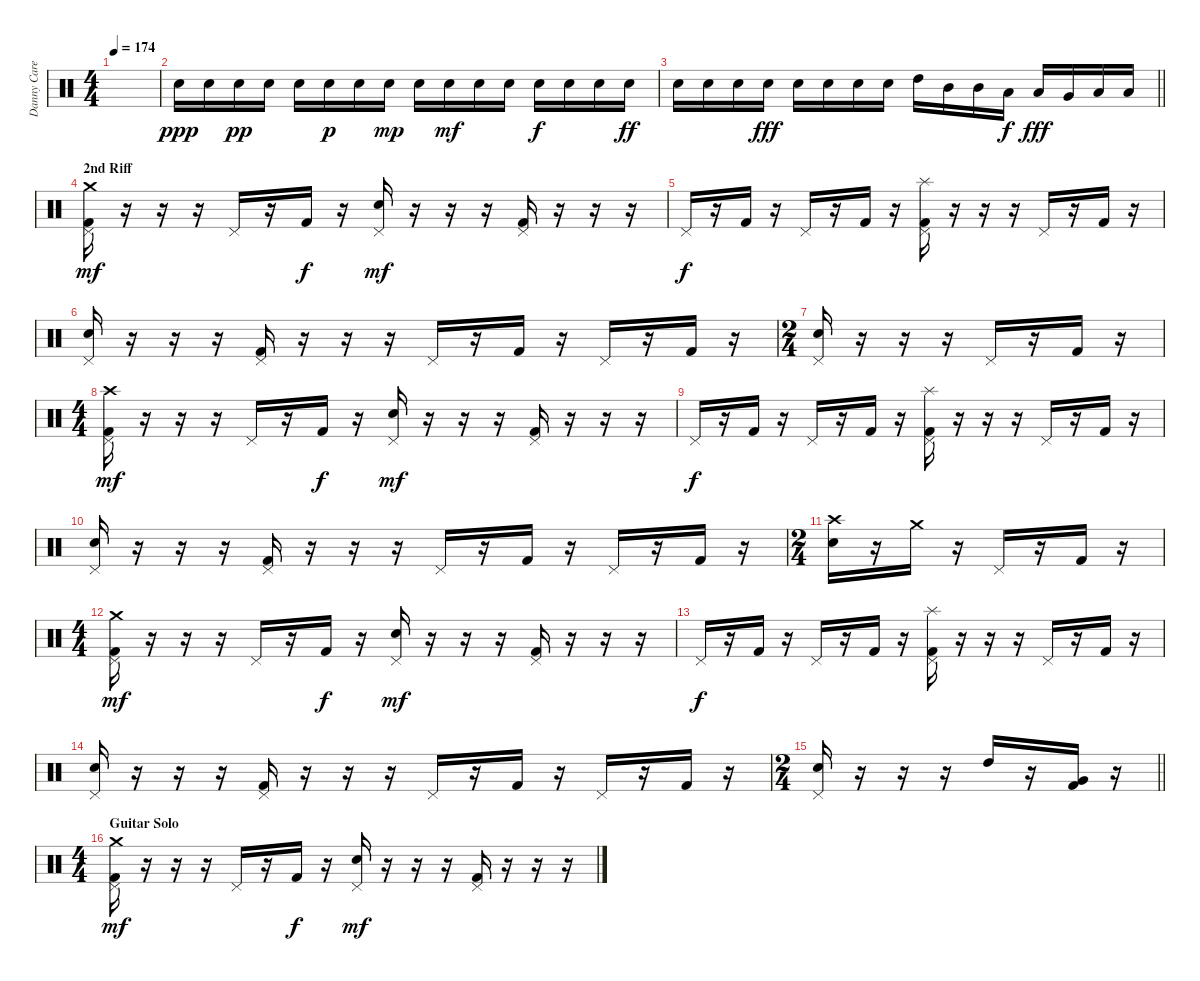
\track ("Danny Carey" "Danny Care") {instrument percussion}
\staff {score}
\articulation defaults
\ts (4 4)
\tempo 174
\clef neutral
\ks c
|
"Electric Snare (hit)".16{dy ppp} "Electric Snare (hit)".16 "Electric Snare (hit)".16{dy pp} "Electric Snare (hit)".16 "Electric Snare (hit)".16 "Electric Snare (hit)".16{dy p} "Electric Snare (hit)".16 "Electric Snare (hit)".16{dy mp} "Electric Snare (hit)".16 "Electric Snare (hit)".16{dy mf} "Electric Snare (hit)".16 "Electric Snare (hit)".16 "Electric Snare (hit)".16{dy f} "Electric Snare (hit)".16 "Electric Snare (hit)".16 "Electric Snare (hit)".16{dy ff} |
\barLineRight lightlight "Electric Snare (hit)".16 "Electric Snare (hit)".16 "Electric Snare (hit)".16 "Electric Snare (hit)".16{dy fff} "Electric Snare (hit)".16 "Electric Snare (hit)".16 "Electric Snare (hit)".16 "Electric Snare (hit)".16 "High Tom (hit)".16 "Mid Tom (hit)".16 "Mid Tom (hit)".16 "Low Tom (hit)".16{dy f} "Low Tom (hit)".16{dy fff} "Very Low Tom (hit)".16 "Low Floor Tom (hit)".16 "Low Floor Tom (hit)".16
|
\section ("" "2nd Riff")
("Crash medium (hit)" "Pedal Hi-Hat (hit)" "Kick (hit) 2").16{dy mf} r.16 r.16 r.16 "Pedal Hi-Hat (hit)".16 r.16 "Kick (hit) 2".16{dy f} r.16 ("Pedal Hi-Hat (hit)" "Snare (hit) 2").16{dy mf} r.16 r.16 r.16 ("Pedal Hi-Hat (hit)" "Kick (hit) 2").16 r.16 r.16 r.16 |
"Pedal Hi-Hat (hit)".16{dy f} r.16 "Kick (hit) 2".16 r.16 "Pedal Hi-Hat (hit)".16 r.16 "Kick (hit) 2".16 r.16 ("Splash (hit)" "Pedal Hi-Hat (hit)" "Kick (hit) 2").16 r.16 r.16 r.16 "Pedal Hi-Hat (hit)".16 r.16 "Kick (hit) 2".16 r.16 |
("Pedal Hi-Hat (hit)" "Snare (hit) 2").16 r.16 r.16 r.16 ("Pedal Hi-Hat (hit)" "Kick (hit) 2").16 r.16 r.16 r.16 "Pedal Hi-Hat (hit)".16 r.16 "Kick (hit) 2".16 r.16 "Pedal Hi-Hat (hit)".16 r.16 "Kick (hit) 2".16 r.16 |
\ts (2 4)
("Pedal Hi-Hat (hit)" "Snare (hit) 2").16 r.16 r.16 r.16 "Pedal Hi-Hat (hit)".16 r.16 "Kick (hit) 2".16 r.16 |
\ts (4 4)
("Crash high (hit)" "Pedal Hi-Hat (hit)" "Kick (hit) 2").16{dy mf} r.16 r.16 r.16 "Pedal Hi-Hat (hit)".16 r.16 "Kick (hit) 2".16{dy f} r.16 ("Pedal Hi-Hat (hit)" "Snare (hit) 2").16{dy mf} r.16 r.16 r.16 ("Pedal Hi-Hat (hit)" "Kick (hit) 2").16 r.16 r.16 r.16 |
"Pedal Hi-Hat (hit)".16{dy f} r.16 "Kick (hit) 2".16 r.16 "Pedal Hi-Hat (hit)".16 r.16 "Kick (hit) 2".16 r.16 ("Splash (hit)" "Pedal Hi-Hat (hit)" "Kick (hit) 2").16 r.16 r.16 r.16 "Pedal Hi-Hat (hit)".16 r.16 "Kick (hit) 2".16 r.16 |
("Pedal Hi-Hat (hit)" "Snare (hit) 2").16 r.16 r.16 r.16 ("Pedal Hi-Hat (hit)" "Kick (hit) 2").16 r.16 r.16 r.16 "Pedal Hi-Hat (hit)".16 r.16 "Kick (hit) 2".16 r.16 "Pedal Hi-Hat (hit)".16 r.16 "Kick (hit) 2".16 r.16 |
\ts (2 4)
("Crash high (hit)" "Snare (hit) 2").16 r.16 "Crash medium (hit)".16 r.16 "Pedal Hi-Hat (hit)".16 r.16 "Kick (hit) 2".16 r.16 |
\ts (4 4)
("Crash medium (hit)" "Pedal Hi-Hat (hit)" "Kick (hit) 2").16{dy mf} r.16 r.16 r.16 "Pedal Hi-Hat (hit)".16 r.16 "Kick (hit) 2".16{dy f} r.16 ("Pedal Hi-Hat (hit)" "Snare (hit) 2").16{dy mf} r.16 r.16 r.16 ("Pedal Hi-Hat (hit)" "Kick (hit) 2").16 r.16 r.16 r.16 |
"Pedal Hi-Hat (hit)".16{dy f} r.16 "Kick (hit) 2".16 r.16 "Pedal Hi-Hat (hit)".16 r.16 "Kick (hit) 2".16 r.16 ("Splash (hit)" "Pedal Hi-Hat (hit)" "Kick (hit) 2").16 r.16 r.16 r.16 "Pedal Hi-Hat (hit)".16 r.16 "Kick (hit) 2".16 r.16 |
("Pedal Hi-Hat (hit)" "Snare (hit) 2").16 r.16 r.16 r.16 ("Pedal Hi-Hat (hit)" "Kick (hit) 2").16 r.16 r.16 r.16 "Pedal Hi-Hat (hit)".16 r.16 "Kick (hit) 2".16 r.16 "Pedal Hi-Hat (hit)".16 r.16 "Kick (hit) 2".16 r.16 |
\ts (2 4)
\barLineRight lightlight
("Pedal Hi-Hat (hit)" "Snare (hit) 2").16 r.16 r.16 r.16 "High Tom (hit)".16 r.16 ("Very Low Tom (hit)" "Kick (hit) 2").16 r.16 |
\ts (4 4)
\section ("" "Guitar Solo")
("Crash medium (hit)" "Pedal Hi-Hat (hit)" "Kick (hit) 2").16{dy mf} r.16 r.16 r.16 "Pedal Hi-Hat (hit)".16 r.16 "Kick (hit) 2".16{dy f} r.16 ("Pedal Hi-Hat (hit)" "Snare (hit) 2").16{dy mf} r.16 r.16 r.16 ("Pedal Hi-Hat (hit)" "Kick (hit) 2").16 r.16 r.16 r.16
